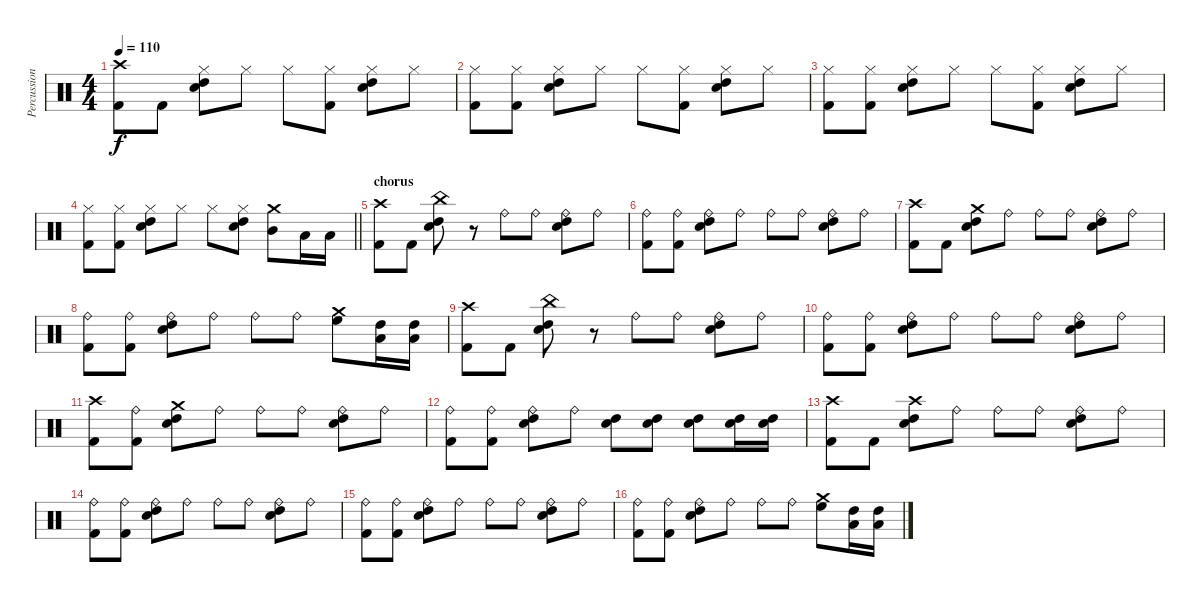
\track ("Percussion" "Percussion") {instrument percussion}
\staff {score}
\articulation defaults
\ts (4 4)
\section ("" "")
\tempo 110
\clef neutral
\ks c
("Crash high (hit)" "Kick (hit) 2").8{dy f} "Kick (hit) 2".8 ("Hi-Hat (closed)" "High Tom (hit)" "Snare (hit) 2").8 "Hi-Hat (closed)".8 "Hi-Hat (closed)".8 ("Hi-Hat (closed)" "Kick (hit) 2").8 ("Hi-Hat (closed)" "High Tom (hit)" "Snare (hit) 2").8 "Hi-Hat (closed)".8 |
("Hi-Hat (closed)" "Kick (hit) 2").8 ("Hi-Hat (closed)" "Kick (hit) 2").8 ("Hi-Hat (closed)" "High Tom (hit)" "Snare (hit) 2").8 "Hi-Hat (closed)".8 "Hi-Hat (closed)".8 ("Hi-Hat (closed)" "Kick (hit) 2").8 ("Hi-Hat (closed)" "High Tom (hit)" "Snare (hit) 2").8 "Hi-Hat (closed)".8 |
("Hi-Hat (closed)" "Kick (hit) 2").8 ("Hi-Hat (closed)" "Kick (hit) 2").8 ("Hi-Hat (closed)" "High Tom (hit)" "Snare (hit) 2").8 "Hi-Hat (closed)".8 "Hi-Hat (closed)".8 ("Hi-Hat (closed)" "Kick (hit) 2").8 ("Hi-Hat (closed)" "High Tom (hit)" "Snare (hit) 2").8 "Hi-Hat (closed)".8 |
\barLineRight lightlight
("Hi-Hat (closed)" "Kick (hit) 2").8 ("Hi-Hat (closed)" "Kick (hit) 2").8 ("Hi-Hat (closed)" "High Tom (hit)" "Snare (hit) 2").8 "Hi-Hat (closed)".8 "Hi-Hat (closed)".8 ("Hi-Hat (closed)" "High Tom (hit)" "Snare (hit) 2").8 ("Crash medium (hit)" "Mid Tom (hit)").8 "Low Tom (hit)".16 "Low Tom (hit)".16 |
\section ("" "chorus")
("Crash high (hit)" "Kick (hit) 2").8 "Kick (hit) 2".8 ("China (hit)" "High Tom (hit)" "Snare (hit) 2").8 r.8 "Ride (bell)".8 "Ride (bell)".8 ("Ride (bell)" "High Tom (hit)" "Snare (hit) 2").8 "Ride (bell)".8 |
("Ride (bell)" "Kick (hit) 2").8 ("Ride (bell)" "Kick (hit) 2").8 ("Ride (bell)" "High Tom (hit)" "Snare (hit) 2").8 "Ride (bell)".8 "Ride (bell)".8 "Ride (bell)".8 ("Ride (bell)" "High Tom (hit)" "Snare (hit) 2").8 "Ride (bell)".8 |
("Crash high (hit)" "Kick (hit) 2").8 "Kick (hit) 2".8 ("Crash medium (hit)" "High Tom (hit)" "Snare (hit) 2").8 "Ride (bell)".8 "Ride (bell)".8 "Ride (bell)".8 ("Ride (bell)" "High Tom (hit)" "Snare (hit) 2").8 "Ride (bell)".8 |
("Ride (bell)" "Kick (hit) 2").8 ("Ride (bell)" "Kick (hit) 2").8 ("Ride (bell)" "High Tom (hit)" "Snare (hit) 2").8 "Ride (bell)".8 "Ride (bell)".8 "Ride (bell)".8 ("Crash medium (hit)" "High Floor Tom (hit)").8 ("High Tom (hit)" "Low Tom (hit)").16 ("High Tom (hit)" "Low Tom (hit)").16 |
("Crash high (hit)" "Kick (hit) 2").8 "Kick (hit) 2".8 ("China (hit)" "High Tom (hit)" "Snare (hit) 2").8 r.8 "Ride (bell)".8 "Ride (bell)".8 ("Ride (bell)" "High Tom (hit)" "Snare (hit) 2").8 "Ride (bell)".8 |
("Ride (bell)" "Kick (hit) 2").8 ("Ride (bell)" "Kick (hit) 2").8 ("Ride (bell)" "High Tom (hit)" "Snare (hit) 2").8 "Ride (bell)".8 "Ride (bell)".8 "Ride (bell)".8 ("Ride (bell)" "High Tom (hit)" "Snare (hit) 2").8 "Ride (bell)".8 |
("Crash high (hit)" "Kick (hit) 2").8 ("Ride (bell)" "Kick (hit) 2").8 ("Crash medium (hit)" "High Tom (hit)" "Snare (hit) 2").8 "Ride (bell)".8 "Ride (bell)".8 "Ride (bell)".8 ("Ride (bell)" "High Tom (hit)" "Snare (hit) 2").8 "Ride (bell)".8 |
("Ride (bell)" "Kick (hit) 2").8 ("Ride (bell)" "Kick (hit) 2").8 ("Ride (bell)" "High Tom (hit)" "Snare (hit) 2").8 "Ride (bell)".8 ("High Tom (hit)" "Snare (hit) 2").8 ("High Tom (hit)" "Snare (hit) 2").8 ("High Tom (hit)" "Snare (hit) 2").8 ("High Tom (hit)" "Snare (hit) 2").16 ("High Tom (hit)" "Snare (hit) 2").16 |
("Crash high (hit)" "Kick (hit) 2").8 "Kick (hit) 2".8 ("Crash high (hit)" "High Tom (hit)" "Snare (hit) 2").8 "Ride (bell)".8 "Ride (bell)".8 "Ride (bell)".8 ("Ride (bell)" "High Tom (hit)" "Snare (hit) 2").8 "Ride (bell)".8 |
("Ride (bell)" "Kick (hit) 2").8 ("Ride (bell)" "Kick (hit) 2").8 ("Ride (bell)" "High Tom (hit)" "Snare (hit) 2").8 "Ride (bell)".8 "Ride (bell)".8 "Ride (bell)".8 ("Ride (bell)" "High Tom (hit)" "Snare (hit) 2").8 "Ride (bell)".8 |
("Ride (bell)" "Kick (hit) 2").8 ("Ride (bell)" "Kick (hit) 2").8 ("Ride (bell)" "High Tom (hit)" "Snare (hit) 2").8 "Ride (bell)".8 "Ride (bell)".8 "Ride (bell)".8 ("Ride (bell)" "High Tom (hit)" "Snare (hit) 2").8 "Ride (bell)".8 |
("Ride (bell)" "Kick (hit) 2").8 ("Ride (bell)" "Kick (hit) 2").8 ("Ride (bell)" "High Tom (hit)" "Snare (hit) 2").8 "Ride (bell)".8 "Ride (bell)".8 "Ride (bell)".8 ("Crash medium (hit)" "High Floor Tom (hit)").8 ("High Tom (hit)" "Low Tom (hit)").16 ("High Tom (hit)" "Low Tom (hit)").16
